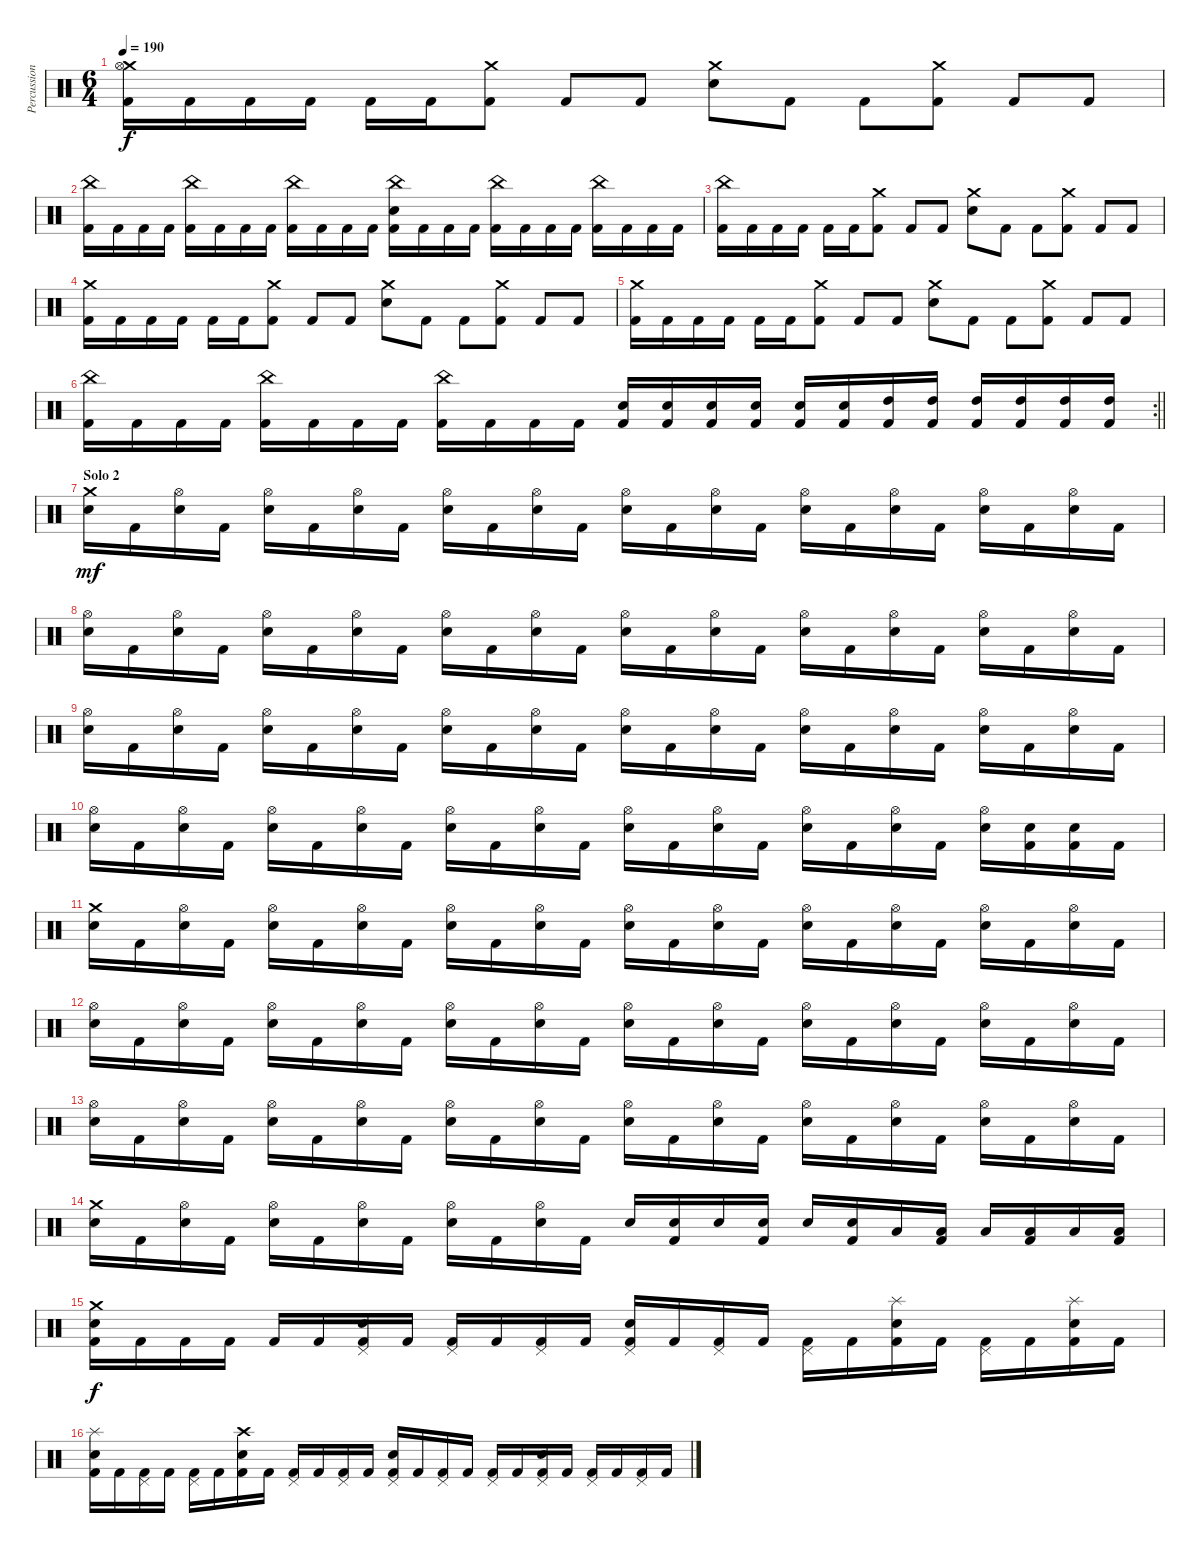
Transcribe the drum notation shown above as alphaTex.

\track ("Percussions" "Percussion") {instrument percussion}
\staff {score}
\articulation defaults
\ts (6 4)
\tempo 190
\clef neutral
\ks c
("Crash medium (hit)" "Hi-Hat (open)" "Kick (hit) 2").16{dy f} "Kick (hit) 2".16 "Kick (hit) 2".16 "Kick (hit) 2".16 "Kick (hit) 2".16 "Kick (hit) 2".16 ("Crash medium (hit)" "Kick (hit) 2").8 "Kick (hit) 2".8 "Kick (hit) 2".8 ("Crash medium (hit)" "Electric Snare (hit)").8 "Kick (hit) 2".8 "Kick (hit) 2".8 ("Crash medium (hit)" "Kick (hit) 2").8 "Kick (hit) 2".8 "Kick (hit) 2".8 |
("China (hit)" "Kick (hit) 2").16 "Kick (hit) 2".16 "Kick (hit) 2".16 "Kick (hit) 2".16 ("China (hit)" "Kick (hit) 2").16 "Kick (hit) 2".16 "Kick (hit) 2".16 "Kick (hit) 2".16 ("China (hit)" "Kick (hit) 2").16 "Kick (hit) 2".16 "Kick (hit) 2".16 "Kick (hit) 2".16 ("China (hit)" "Electric Snare (hit)" "Kick (hit) 2").16 "Kick (hit) 2".16 "Kick (hit) 2".16 "Kick (hit) 2".16 ("China (hit)" "Kick (hit) 2").16 "Kick (hit) 2".16 "Kick (hit) 2".16 "Kick (hit) 2".16 ("China (hit)" "Kick (hit) 2").16 "Kick (hit) 2".16 "Kick (hit) 2".16 "Kick (hit) 2".16 |
("China (hit)" "Kick (hit) 2").16 "Kick (hit) 2".16 "Kick (hit) 2".16 "Kick (hit) 2".16 "Kick (hit) 2".16 "Kick (hit) 2".16 ("Crash medium (hit)" "Kick (hit) 2").8 "Kick (hit) 2".8 "Kick (hit) 2".8 ("Crash medium (hit)" "Electric Snare (hit)").8 "Kick (hit) 2".8 "Kick (hit) 2".8 ("Crash medium (hit)" "Kick (hit) 2").8 "Kick (hit) 2".8 "Kick (hit) 2".8 |
("Crash medium (hit)" "Kick (hit) 2").16 "Kick (hit) 2".16 "Kick (hit) 2".16 "Kick (hit) 2".16 "Kick (hit) 2".16 "Kick (hit) 2".16 ("Crash medium (hit)" "Kick (hit) 2").8 "Kick (hit) 2".8 "Kick (hit) 2".8 ("Crash medium (hit)" "Electric Snare (hit)").8 "Kick (hit) 2".8 "Kick (hit) 2".8 ("Crash medium (hit)" "Kick (hit) 2").8 "Kick (hit) 2".8 "Kick (hit) 2".8 |
("Crash medium (hit)" "Kick (hit) 2").16 "Kick (hit) 2".16 "Kick (hit) 2".16 "Kick (hit) 2".16 "Kick (hit) 2".16 "Kick (hit) 2".16 ("Crash medium (hit)" "Kick (hit) 2").8 "Kick (hit) 2".8 "Kick (hit) 2".8 ("Crash medium (hit)" "Electric Snare (hit)").8 "Kick (hit) 2".8 "Kick (hit) 2".8 ("Crash medium (hit)" "Kick (hit) 2").8 "Kick (hit) 2".8 "Kick (hit) 2".8 |
\rc 2
\barLineRight lightlight
("China (hit)" "Kick (hit) 2").16 "Kick (hit) 2".16 "Kick (hit) 2".16 "Kick (hit) 2".16 ("China (hit)" "Kick (hit) 2").16 "Kick (hit) 2".16 "Kick (hit) 2".16 "Kick (hit) 2".16 ("China (hit)" "Kick (hit) 2").16 "Kick (hit) 2".16 "Kick (hit) 2".16 "Kick (hit) 2".16 ("Electric Snare (hit)" "Kick (hit) 2").16 ("Electric Snare (hit)" "Kick (hit) 2").16 ("Electric Snare (hit)" "Kick (hit) 2").16 ("Electric Snare (hit)" "Kick (hit) 2").16 ("Electric Snare (hit)" "Kick (hit) 2").16 ("Electric Snare (hit)" "Kick (hit) 2").16 ("High Tom (hit)" "Kick (hit) 2").16 ("High Tom (hit)" "Kick (hit) 2").16 ("High Tom (hit)" "Kick (hit) 2").16 ("High Tom (hit)" "Kick (hit) 2").16 ("High Tom (hit)" "Kick (hit) 2").16 ("High Tom (hit)" "Kick (hit) 2").16 |
\section ("" "Solo 2")
("Crash medium (hit)" "Electric Snare (hit)").16{dy mf} "Kick (hit) 2".16 ("Hi-Hat (open)" "Electric Snare (hit)").16 "Kick (hit) 2".16 ("Hi-Hat (open)" "Electric Snare (hit)").16 "Kick (hit) 2".16 ("Hi-Hat (open)" "Electric Snare (hit)").16 "Kick (hit) 2".16 ("Hi-Hat (open)" "Electric Snare (hit)").16 "Kick (hit) 2".16 ("Hi-Hat (open)" "Electric Snare (hit)").16 "Kick (hit) 2".16 ("Hi-Hat (open)" "Electric Snare (hit)").16 "Kick (hit) 2".16 ("Hi-Hat (open)" "Electric Snare (hit)").16 "Kick (hit) 2".16 ("Hi-Hat (open)" "Electric Snare (hit)").16 "Kick (hit) 2".16 ("Hi-Hat (open)" "Electric Snare (hit)").16 "Kick (hit) 2".16 ("Hi-Hat (open)" "Electric Snare (hit)").16 "Kick (hit) 2".16 ("Hi-Hat (open)" "Electric Snare (hit)").16 "Kick (hit) 2".16 |
("Hi-Hat (open)" "Electric Snare (hit)").16 "Kick (hit) 2".16 ("Hi-Hat (open)" "Electric Snare (hit)").16 "Kick (hit) 2".16 ("Hi-Hat (open)" "Electric Snare (hit)").16 "Kick (hit) 2".16 ("Hi-Hat (open)" "Electric Snare (hit)").16 "Kick (hit) 2".16 ("Hi-Hat (open)" "Electric Snare (hit)").16 "Kick (hit) 2".16 ("Hi-Hat (open)" "Electric Snare (hit)").16 "Kick (hit) 2".16 ("Hi-Hat (open)" "Electric Snare (hit)").16 "Kick (hit) 2".16 ("Hi-Hat (open)" "Electric Snare (hit)").16 "Kick (hit) 2".16 ("Hi-Hat (open)" "Electric Snare (hit)").16 "Kick (hit) 2".16 ("Hi-Hat (open)" "Electric Snare (hit)").16 "Kick (hit) 2".16 ("Hi-Hat (open)" "Electric Snare (hit)").16 "Kick (hit) 2".16 ("Hi-Hat (open)" "Electric Snare (hit)").16 "Kick (hit) 2".16 |
("Hi-Hat (open)" "Electric Snare (hit)").16 "Kick (hit) 2".16 ("Hi-Hat (open)" "Electric Snare (hit)").16 "Kick (hit) 2".16 ("Hi-Hat (open)" "Electric Snare (hit)").16 "Kick (hit) 2".16 ("Hi-Hat (open)" "Electric Snare (hit)").16 "Kick (hit) 2".16 ("Hi-Hat (open)" "Electric Snare (hit)").16 "Kick (hit) 2".16 ("Hi-Hat (open)" "Electric Snare (hit)").16 "Kick (hit) 2".16 ("Hi-Hat (open)" "Electric Snare (hit)").16 "Kick (hit) 2".16 ("Hi-Hat (open)" "Electric Snare (hit)").16 "Kick (hit) 2".16 ("Hi-Hat (open)" "Electric Snare (hit)").16 "Kick (hit) 2".16 ("Hi-Hat (open)" "Electric Snare (hit)").16 "Kick (hit) 2".16 ("Hi-Hat (open)" "Electric Snare (hit)").16 "Kick (hit) 2".16 ("Hi-Hat (open)" "Electric Snare (hit)").16 "Kick (hit) 2".16 |
("Hi-Hat (open)" "Electric Snare (hit)").16 "Kick (hit) 2".16 ("Hi-Hat (open)" "Electric Snare (hit)").16 "Kick (hit) 2".16 ("Hi-Hat (open)" "Electric Snare (hit)").16 "Kick (hit) 2".16 ("Hi-Hat (open)" "Electric Snare (hit)").16 "Kick (hit) 2".16 ("Hi-Hat (open)" "Electric Snare (hit)").16 "Kick (hit) 2".16 ("Hi-Hat (open)" "Electric Snare (hit)").16 "Kick (hit) 2".16 ("Hi-Hat (open)" "Electric Snare (hit)").16 "Kick (hit) 2".16 ("Hi-Hat (open)" "Electric Snare (hit)").16 "Kick (hit) 2".16 ("Hi-Hat (open)" "Electric Snare (hit)").16 "Kick (hit) 2".16 ("Hi-Hat (open)" "Electric Snare (hit)").16 "Kick (hit) 2".16 ("Hi-Hat (open)" "Electric Snare (hit)").16 ("Electric Snare (hit)" "Kick (hit) 2").16 ("Electric Snare (hit)" "Kick (hit) 2").16 "Kick (hit) 2".16 |
("Crash medium (hit)" "Electric Snare (hit)").16 "Kick (hit) 2".16 ("Hi-Hat (open)" "Electric Snare (hit)").16 "Kick (hit) 2".16 ("Hi-Hat (open)" "Electric Snare (hit)").16 "Kick (hit) 2".16 ("Hi-Hat (open)" "Electric Snare (hit)").16 "Kick (hit) 2".16 ("Hi-Hat (open)" "Electric Snare (hit)").16 "Kick (hit) 2".16 ("Hi-Hat (open)" "Electric Snare (hit)").16 "Kick (hit) 2".16 ("Hi-Hat (open)" "Electric Snare (hit)").16 "Kick (hit) 2".16 ("Hi-Hat (open)" "Electric Snare (hit)").16 "Kick (hit) 2".16 ("Hi-Hat (open)" "Electric Snare (hit)").16 "Kick (hit) 2".16 ("Hi-Hat (open)" "Electric Snare (hit)").16 "Kick (hit) 2".16 ("Hi-Hat (open)" "Electric Snare (hit)").16 "Kick (hit) 2".16 ("Hi-Hat (open)" "Electric Snare (hit)").16 "Kick (hit) 2".16 |
("Hi-Hat (open)" "Electric Snare (hit)").16 "Kick (hit) 2".16 ("Hi-Hat (open)" "Electric Snare (hit)").16 "Kick (hit) 2".16 ("Hi-Hat (open)" "Electric Snare (hit)").16 "Kick (hit) 2".16 ("Hi-Hat (open)" "Electric Snare (hit)").16 "Kick (hit) 2".16 ("Hi-Hat (open)" "Electric Snare (hit)").16 "Kick (hit) 2".16 ("Hi-Hat (open)" "Electric Snare (hit)").16 "Kick (hit) 2".16 ("Hi-Hat (open)" "Electric Snare (hit)").16 "Kick (hit) 2".16 ("Hi-Hat (open)" "Electric Snare (hit)").16 "Kick (hit) 2".16 ("Hi-Hat (open)" "Electric Snare (hit)").16 "Kick (hit) 2".16 ("Hi-Hat (open)" "Electric Snare (hit)").16 "Kick (hit) 2".16 ("Hi-Hat (open)" "Electric Snare (hit)").16 "Kick (hit) 2".16 ("Hi-Hat (open)" "Electric Snare (hit)").16 "Kick (hit) 2".16 |
("Hi-Hat (open)" "Electric Snare (hit)").16 "Kick (hit) 2".16 ("Hi-Hat (open)" "Electric Snare (hit)").16 "Kick (hit) 2".16 ("Hi-Hat (open)" "Electric Snare (hit)").16 "Kick (hit) 2".16 ("Hi-Hat (open)" "Electric Snare (hit)").16 "Kick (hit) 2".16 ("Hi-Hat (open)" "Electric Snare (hit)").16 "Kick (hit) 2".16 ("Hi-Hat (open)" "Electric Snare (hit)").16 "Kick (hit) 2".16 ("Hi-Hat (open)" "Electric Snare (hit)").16 "Kick (hit) 2".16 ("Hi-Hat (open)" "Electric Snare (hit)").16 "Kick (hit) 2".16 ("Hi-Hat (open)" "Electric Snare (hit)").16 "Kick (hit) 2".16 ("Hi-Hat (open)" "Electric Snare (hit)").16 "Kick (hit) 2".16 ("Hi-Hat (open)" "Electric Snare (hit)").16 "Kick (hit) 2".16 ("Hi-Hat (open)" "Electric Snare (hit)").16 "Kick (hit) 2".16 |
("Crash medium (hit)" "Electric Snare (hit)").16 "Kick (hit) 2".16 ("Hi-Hat (open)" "Electric Snare (hit)").16 "Kick (hit) 2".16 ("Hi-Hat (open)" "Electric Snare (hit)").16 "Kick (hit) 2".16 ("Hi-Hat (open)" "Electric Snare (hit)").16 "Kick (hit) 2".16 ("Hi-Hat (open)" "Electric Snare (hit)").16 "Kick (hit) 2".16 ("Hi-Hat (open)" "Electric Snare (hit)").16 "Kick (hit) 2".16 "Electric Snare (hit)".16 ("Electric Snare (hit)" "Kick (hit) 2").16 "Electric Snare (hit)".16 ("Electric Snare (hit)" "Kick (hit) 2").16 "Electric Snare (hit)".16 ("Electric Snare (hit)" "Kick (hit) 2").16 "Low Tom (hit)".16 ("Low Tom (hit)" "Kick (hit) 2").16 "Low Tom (hit)".16 ("Low Tom (hit)" "Kick (hit) 2").16 "Low Tom (hit)".16 ("Low Tom (hit)" "Kick (hit) 2").16 |
("Crash medium (hit)" "Electric Snare (hit)" "Kick (hit) 2").16{dy f} "Kick (hit) 2".16 "Kick (hit) 2".16 "Kick (hit) 2".16 "Kick (hit) 2".16 "Kick (hit) 2".16 ("Pedal Hi-Hat (hit)" "Electric Snare (hit)" "Kick (hit) 2").16 "Kick (hit) 2".16 ("Pedal Hi-Hat (hit)" "Kick (hit) 2").16 "Kick (hit) 2".16 ("Pedal Hi-Hat (hit)" "Kick (hit) 2").16 "Kick (hit) 2".16 ("Pedal Hi-Hat (hit)" "Electric Snare (hit)" "Kick (hit) 2").16 "Kick (hit) 2".16 ("Pedal Hi-Hat (hit)" "Kick (hit) 2").16 "Kick (hit) 2".16 ("Pedal Hi-Hat (hit)" "Kick (hit) 2").16 "Kick (hit) 2".16 ("Splash (hit)" "Electric Snare (hit)" "Kick (hit) 2").16 "Kick (hit) 2".16 ("Pedal Hi-Hat (hit)" "Kick (hit) 2").16 "Kick (hit) 2".16 ("Splash (hit)" "Electric Snare (hit)" "Kick (hit) 2").16 "Kick (hit) 2".16 |
("Splash (hit)" "Electric Snare (hit)" "Kick (hit) 2").16 "Kick (hit) 2".16 ("Pedal Hi-Hat (hit)" "Kick (hit) 2").16 "Kick (hit) 2".16 ("Pedal Hi-Hat (hit)" "Kick (hit) 2").16 "Kick (hit) 2".16 ("Crash high (hit)" "Electric Snare (hit)" "Kick (hit) 2").16 "Kick (hit) 2".16 ("Pedal Hi-Hat (hit)" "Kick (hit) 2").16 "Kick (hit) 2".16 ("Pedal Hi-Hat (hit)" "Kick (hit) 2").16 "Kick (hit) 2".16 ("Pedal Hi-Hat (hit)" "Electric Snare (hit)" "Kick (hit) 2").16 "Kick (hit) 2".16 ("Pedal Hi-Hat (hit)" "Kick (hit) 2").16 "Kick (hit) 2".16 ("Pedal Hi-Hat (hit)" "Kick (hit) 2").16 "Kick (hit) 2".16 ("Pedal Hi-Hat (hit)" "Electric Snare (hit)" "Kick (hit) 2").16 "Kick (hit) 2".16 ("Pedal Hi-Hat (hit)" "Kick (hit) 2").16 "Kick (hit) 2".16 ("Pedal Hi-Hat (hit)" "Kick (hit) 2").16 "Kick (hit) 2".16
